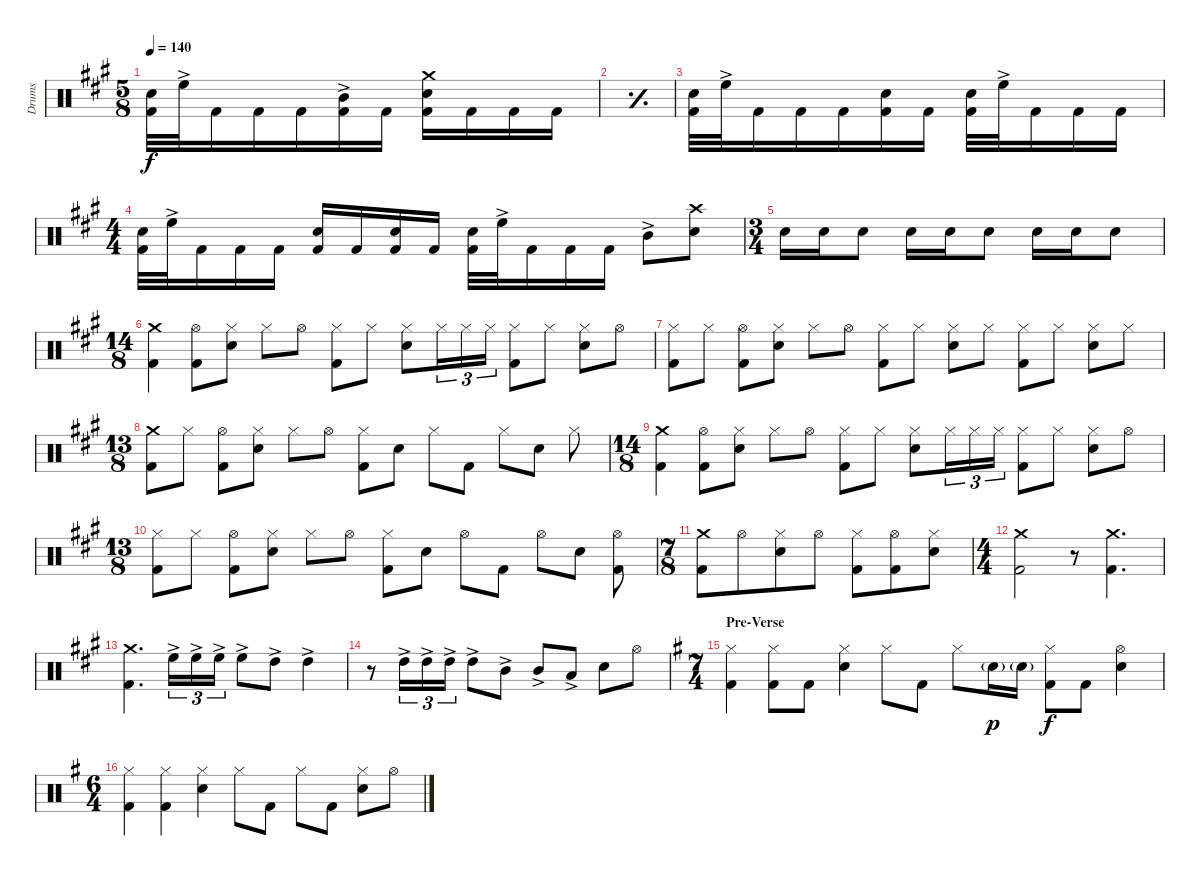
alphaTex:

\defaultSystemsLayout 4
\bracketExtendMode groupsimilarinstruments
\otherSystemsTrackNameOrientation horizontal
\track ("Drumkit" "Drums") {multiBarRest instrument percussion}
\staff {score}
\articulation defaults
\ts (5 8)
\tempo 140
\clef neutral
\ks a
("Snare (hit) 2"{acc forcenatural} "Kick (hit) 2"{acc forcenatural}).32{dy f} "High Floor Tom (hit)"{ac acc forcenatural}.32 "Kick (hit) 2"{acc forcenatural}.16 "Kick (hit) 2"{acc forcenatural}.16 "Kick (hit) 2"{acc forcenatural}.16 ("Mid Tom (hit)"{ac acc forcenatural} "Kick (hit) 2"{acc forcenatural}).16 "Kick (hit) 2"{acc forcenatural}.16 ("Snare (hit) 2"{acc forcenatural} "Kick (hit) 2"{acc forcenatural} "Crash medium (hit)"{acc forcenatural}).16 "Kick (hit) 2"{acc forcenatural}.16 "Kick (hit) 2"{acc forcenatural}.16 "Kick (hit) 2"{acc forcenatural}.16 |
\simile simple
|
\simile none
("Snare (hit) 2"{acc forcenatural} "Kick (hit) 2"{acc forcenatural}).32 "High Floor Tom (hit)"{ac acc forcenatural}.32 "Kick (hit) 2"{acc forcenatural}.16 "Kick (hit) 2"{acc forcenatural}.16 "Kick (hit) 2"{acc forcenatural}.16 ("Snare (hit) 2"{acc forcenatural} "Kick (hit) 2"{acc forcenatural}).16 "Kick (hit) 2"{acc forcenatural}.16 ("Snare (hit) 2"{acc forcenatural} "Kick (hit) 2"{acc forcenatural}).32 "High Floor Tom (hit)"{ac acc forcenatural}.32 "Kick (hit) 2"{acc forcenatural}.16 "Kick (hit) 2"{acc forcenatural}.16 "Kick (hit) 2"{acc forcenatural}.16 |
\ts (4 4)
("Snare (hit) 2"{acc forcenatural} "Kick (hit) 2"{acc forcenatural}).32 "High Floor Tom (hit)"{ac acc forcenatural}.32 "Kick (hit) 2"{acc forcenatural}.16 "Kick (hit) 2"{acc forcenatural}.16 "Kick (hit) 2"{acc forcenatural}.16 ("Snare (hit) 2"{acc forcenatural} "Kick (hit) 2"{acc forcenatural}).16 "Kick (hit) 2"{acc forcenatural}.16 ("Snare (hit) 2"{acc forcenatural} "Kick (hit) 2"{acc forcenatural}).16 "Kick (hit) 2"{acc forcenatural}.16 ("Snare (hit) 2"{acc forcenatural} "Kick (hit) 2"{acc forcenatural}).32 "High Floor Tom (hit)"{ac acc forcenatural}.32 "Kick (hit) 2"{acc forcenatural}.16 "Kick (hit) 2"{acc forcenatural}.16 "Kick (hit) 2"{acc forcenatural}.16 "Mid Tom (hit)"{ac acc forcenatural}.8 ("Snare (hit) 2"{acc forcenatural} "Crash high (hit)"{acc forcenatural}).8 |
\ts (3 4)
"Snare (hit) 2"{acc forcenatural}.16 "Snare (hit) 2"{acc forcenatural}.16 "Snare (hit) 2"{acc forcenatural}.8 "Snare (hit) 2"{acc forcenatural}.16 "Snare (hit) 2"{acc forcenatural}.16 "Snare (hit) 2"{acc forcenatural}.8 "Snare (hit) 2"{acc forcenatural}.16 "Snare (hit) 2"{acc forcenatural}.16 "Snare (hit) 2"{acc forcenatural}.8 |
\ts (14 8)
("Crash medium (hit)"{acc forcenatural} "Kick (hit) 2"{acc forcenatural}).4 ("Hi-Hat (open)"{acc forcenatural} "Kick (hit) 2"{acc forcenatural}).8 ("Hi-Hat (closed)"{acc forcenatural} "Snare (hit) 2"{acc forcenatural}).8 "Hi-Hat (closed)"{acc forcenatural}.8 "Hi-Hat (open)"{acc forcenatural}.8 ("Hi-Hat (closed)"{acc forcenatural} "Kick (hit) 2"{acc forcenatural}).8 "Hi-Hat (closed)"{acc forcenatural}.8 ("Hi-Hat (closed)"{acc forcenatural} "Snare (hit) 2"{acc forcenatural}).8{beam merge} "Hi-Hat (closed)"{acc forcenatural}.16{tu (3 2)} "Hi-Hat (closed)"{acc forcenatural}.16{tu (3 2)} "Hi-Hat (closed)"{acc forcenatural}.16{tu (3 2)} ("Hi-Hat (closed)"{acc forcenatural} "Kick (hit) 2"{acc forcenatural}).8 "Hi-Hat (closed)"{acc forcenatural}.8 ("Hi-Hat (closed)"{acc forcenatural} "Snare (hit) 2"{acc forcenatural}).8 "Hi-Hat (open)"{acc forcenatural}.8 |
("Hi-Hat (closed)"{acc forcenatural} "Kick (hit) 2"{acc forcenatural}).8 "Hi-Hat (closed)"{acc forcenatural}.8 ("Hi-Hat (open)"{acc forcenatural} "Kick (hit) 2"{acc forcenatural}).8 ("Hi-Hat (closed)"{acc forcenatural} "Snare (hit) 2"{acc forcenatural}).8 "Hi-Hat (closed)"{acc forcenatural}.8 "Hi-Hat (open)"{acc forcenatural}.8 ("Hi-Hat (closed)"{acc forcenatural} "Kick (hit) 2"{acc forcenatural}).8 "Hi-Hat (closed)"{acc forcenatural}.8 ("Hi-Hat (closed)"{acc forcenatural} "Snare (hit) 2"{acc forcenatural}).8 "Hi-Hat (closed)"{acc forcenatural}.8 ("Hi-Hat (closed)"{acc forcenatural} "Kick (hit) 2"{acc forcenatural}).8 "Hi-Hat (closed)"{acc forcenatural}.8 ("Hi-Hat (closed)"{acc forcenatural} "Snare (hit) 2"{acc forcenatural}).8 "Hi-Hat (closed)"{acc forcenatural}.8 |
\ts (13 8)
("Crash medium (hit)"{acc forcenatural} "Kick (hit) 2"{acc forcenatural}).8 "Hi-Hat (closed)"{acc forcenatural}.8 ("Hi-Hat (open)"{acc forcenatural} "Kick (hit) 2"{acc forcenatural}).8 ("Hi-Hat (closed)"{acc forcenatural} "Snare (hit) 2"{acc forcenatural}).8 "Hi-Hat (closed)"{acc forcenatural}.8 "Hi-Hat (open)"{acc forcenatural}.8 ("Hi-Hat (closed)"{acc forcenatural} "Kick (hit) 2"{acc forcenatural}).8 "Snare (hit) 2"{acc forcenatural}.8 "Hi-Hat (closed)"{acc forcenatural}.8 "Kick (hit) 2"{acc forcenatural}.8 "Hi-Hat (closed)"{acc forcenatural}.8 "Snare (hit) 2"{acc forcenatural}.8 "Hi-Hat (closed)"{acc forcenatural}.8 |
\ts (14 8)
("Crash medium (hit)"{acc forcenatural} "Kick (hit) 2"{acc forcenatural}).4 ("Hi-Hat (open)"{acc forcenatural} "Kick (hit) 2"{acc forcenatural}).8 ("Hi-Hat (closed)"{acc forcenatural} "Snare (hit) 2"{acc forcenatural}).8 "Hi-Hat (closed)"{acc forcenatural}.8 "Hi-Hat (open)"{acc forcenatural}.8 ("Hi-Hat (closed)"{acc forcenatural} "Kick (hit) 2"{acc forcenatural}).8 "Hi-Hat (closed)"{acc forcenatural}.8 ("Hi-Hat (closed)"{acc forcenatural} "Snare (hit) 2"{acc forcenatural}).8{beam merge} "Hi-Hat (closed)"{acc forcenatural}.16{tu (3 2)} "Hi-Hat (closed)"{acc forcenatural}.16{tu (3 2)} "Hi-Hat (closed)"{acc forcenatural}.16{tu (3 2)} ("Hi-Hat (closed)"{acc forcenatural} "Kick (hit) 2"{acc forcenatural}).8 "Hi-Hat (closed)"{acc forcenatural}.8 ("Hi-Hat (closed)"{acc forcenatural} "Snare (hit) 2"{acc forcenatural}).8 "Hi-Hat (open)"{acc forcenatural}.8 |
\ts (13 8)
("Hi-Hat (closed)"{acc forcenatural} "Kick (hit) 2"{acc forcenatural}).8 "Hi-Hat (closed)"{acc forcenatural}.8 ("Hi-Hat (open)"{acc forcenatural} "Kick (hit) 2"{acc forcenatural}).8 ("Hi-Hat (closed)"{acc forcenatural} "Snare (hit) 2"{acc forcenatural}).8 "Hi-Hat (closed)"{acc forcenatural}.8 "Hi-Hat (open)"{acc forcenatural}.8 ("Hi-Hat (closed)"{acc forcenatural} "Kick (hit) 2"{acc forcenatural}).8 "Snare (hit) 2"{acc forcenatural}.8 "Hi-Hat (open)"{acc forcenatural}.8 "Kick (hit) 2"{acc forcenatural}.8 "Hi-Hat (open)"{acc forcenatural}.8 "Snare (hit) 2"{acc forcenatural}.8 ("Hi-Hat (open)"{acc forcenatural} "Kick (hit) 2"{acc forcenatural}).8 |
\ts (7 8)
("Crash medium (hit)"{acc forcenatural} "Kick (hit) 2"{acc forcenatural}).8 "Hi-Hat (open)"{acc forcenatural}.8 ("Hi-Hat (closed)"{acc forcenatural} "Snare (hit) 2"{acc forcenatural}).8 "Hi-Hat (open)"{acc forcenatural}.8 ("Hi-Hat (closed)"{acc forcenatural} "Kick (hit) 2"{acc forcenatural}).8 ("Hi-Hat (open)"{acc forcenatural} "Kick (hit) 2"{acc forcenatural}).8 ("Hi-Hat (closed)"{acc forcenatural} "Snare (hit) 2"{acc forcenatural}).8 |
\ts (4 4)
("Crash medium (hit)"{acc forcenatural} "Kick (hit) 2"{acc forcenatural}).2 r.8 ("Crash medium (hit)"{acc forcenatural} "Kick (hit) 2"{acc forcenatural}).4{d} |
("Crash medium (hit)"{acc forcenatural} "Kick (hit) 2"{acc forcenatural}).4{d} "High Floor Tom (hit)"{ac acc forcenatural}.16{tu (3 2)} "High Floor Tom (hit)"{ac acc forcenatural}.16{tu (3 2)} "High Floor Tom (hit)"{ac acc forcenatural}.16{tu (3 2)} "High Floor Tom (hit)"{ac acc forcenatural}.8 "High Tom (hit)"{ac acc forcenatural}.8 "High Tom (hit)"{ac acc forcenatural}.4 |
r.8 "High Tom (hit)"{ac acc forcenatural}.16{tu (3 2)} "High Tom (hit)"{ac acc forcenatural}.16{tu (3 2)} "High Tom (hit)"{ac acc forcenatural}.16{tu (3 2)} "High Tom (hit)"{ac acc forcenatural}.8 "Mid Tom (hit)"{ac acc forcenatural}.8 "Mid Tom (hit)"{ac acc forcenatural}.8 "Low Tom (hit)"{ac acc forcenatural}.8 "Snare (hit) 2"{acc forcenatural}.8 "Hi-Hat (open)"{acc forcenatural}.8 |
\ts (7 4)
\section ("" "Pre-Verse")
\ks g
("Hi-Hat (closed)"{acc forcenatural} "Kick (hit) 2"{acc forcenatural}).4 ("Hi-Hat (closed)"{acc forcenatural} "Kick (hit) 2"{acc forcenatural}).8 "Kick (hit) 2"{acc forcenatural}.8 ("Hi-Hat (closed)"{acc forcenatural} "Snare (hit) 2"{acc forcenatural}).4 "Hi-Hat (closed)"{acc forcenatural}.8 "Kick (hit) 2"{acc forcenatural}.8{beam split} "Hi-Hat (closed)"{acc forcenatural}.8 "Snare (hit) 2"{g acc forcenatural}.16{dy p} "Snare (hit) 2"{g acc forcenatural}.16 ("Hi-Hat (closed)"{acc forcenatural} "Kick (hit) 2"{acc forcenatural}).8{dy f} "Kick (hit) 2"{acc forcenatural}.8 ("Hi-Hat (open)"{acc forcenatural} "Snare (hit) 2"{acc forcenatural}).4 |
\ts (6 4)
("Hi-Hat (closed)"{acc forcenatural} "Kick (hit) 2"{acc forcenatural}).4 ("Hi-Hat (closed)"{acc forcenatural} "Kick (hit) 2"{acc forcenatural}).4 ("Hi-Hat (closed)"{acc forcenatural} "Snare (hit) 2"{acc forcenatural}).4 "Hi-Hat (closed)"{acc forcenatural}.8 "Kick (hit) 2"{acc forcenatural}.8{beam split} "Hi-Hat (closed)"{acc forcenatural}.8 "Kick (hit) 2"{acc forcenatural}.8{beam split} ("Hi-Hat (closed)"{acc forcenatural} "Snare (hit) 2"{acc forcenatural}).8 "Hi-Hat (open)"{acc forcenatural}.8
